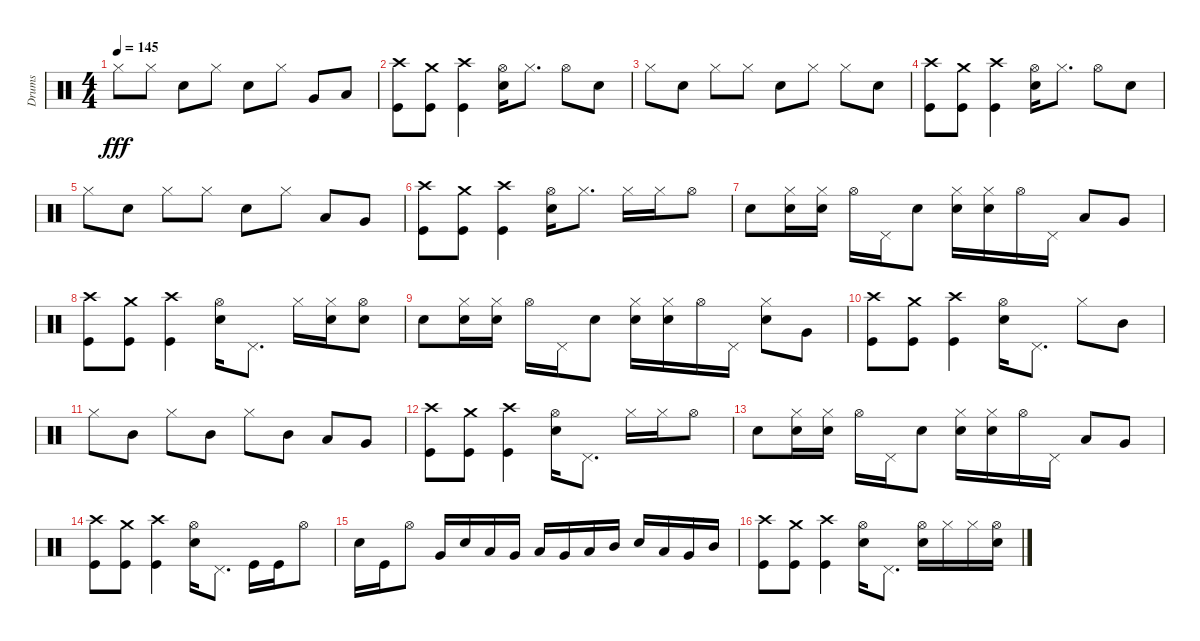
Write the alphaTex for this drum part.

\track ("Drums" "Drums") {instrument percussion}
\staff {score}
\articulation defaults
\ts (4 4)
\tempo 145
\clef neutral
\ks c "Hi-Hat (closed)".8{dy fff} "Hi-Hat (closed)".8 "Snare (hit) 2".8 "Hi-Hat (closed)".8 "Snare (hit) 2".8 "Hi-Hat (closed)".8 "Very Low Tom (hit)".8 "Low Floor Tom (hit)".8
|
("Crash high (hit)" "Kick (hit)").8 ("Crash medium (hit)" "Kick (hit)").8 ("Crash high (hit)" "Kick (hit)").4 ("Hi-Hat (open)" "Snare (hit) 2").16 "Hi-Hat (closed)".8{d} "Hi-Hat (open)".8 "Snare (hit) 2".8 |
"Hi-Hat (closed)".8 "Snare (hit) 2".8 "Hi-Hat (closed)".8 "Hi-Hat (closed)".8 "Snare (hit) 2".8 "Hi-Hat (closed)".8 "Hi-Hat (closed)".8 "Snare (hit) 2".8 |
("Crash high (hit)" "Kick (hit)").8 ("Crash medium (hit)" "Kick (hit)").8 ("Crash high (hit)" "Kick (hit)").4 ("Hi-Hat (open)" "Snare (hit) 2").16 "Hi-Hat (closed)".8{d} "Hi-Hat (open)".8 "Snare (hit) 2".8 |
"Hi-Hat (closed)".8 "Snare (hit) 2".8 "Hi-Hat (closed)".8 "Hi-Hat (closed)".8 "Snare (hit) 2".8 "Hi-Hat (closed)".8 "Low Tom (hit)".8 "Very Low Tom (hit)".8 |
("Crash high (hit)" "Kick (hit)").8 ("Crash medium (hit)" "Kick (hit)").8 ("Crash high (hit)" "Kick (hit)").4 ("Hi-Hat (open)" "Snare (hit) 2").16 "Hi-Hat (closed)".8{d} "Hi-Hat (closed)".16 "Hi-Hat (closed)".16 "Hi-Hat (open)".8 |
"Snare (hit) 2".8 ("Hi-Hat (closed)" "Snare (hit) 2").16 ("Hi-Hat (closed)" "Snare (hit) 2").16 "Hi-Hat (open)".16 "Pedal Hi-Hat (hit)".16 "Snare (hit) 2".8 ("Hi-Hat (closed)" "Snare (hit) 2").16 ("Hi-Hat (closed)" "Snare (hit) 2").16 "Hi-Hat (open)".16 "Pedal Hi-Hat (hit)".16 "Low Tom (hit)".8 "Very Low Tom (hit)".8 |
("Crash high (hit)" "Kick (hit)").8 ("Crash medium (hit)" "Kick (hit)").8 ("Crash high (hit)" "Kick (hit)").4 ("Hi-Hat (open)" "Snare (hit) 2").16 "Pedal Hi-Hat (hit)".8{d} "Hi-Hat (closed)".16 ("Hi-Hat (closed)" "Snare (hit) 2").16 ("Hi-Hat (open)" "Snare (hit) 2").8 |
"Snare (hit) 2".8 ("Hi-Hat (closed)" "Snare (hit) 2").16 ("Hi-Hat (closed)" "Snare (hit) 2").16 "Hi-Hat (open)".16 "Pedal Hi-Hat (hit)".16 "Snare (hit) 2".8 ("Hi-Hat (closed)" "Snare (hit) 2").16 ("Hi-Hat (closed)" "Snare (hit) 2").16 "Hi-Hat (open)".16 "Pedal Hi-Hat (hit)".16 ("Hi-Hat (closed)" "Snare (hit) 2").8 "Very Low Tom (hit)".8 |
("Crash high (hit)" "Kick (hit)").8 ("Crash medium (hit)" "Kick (hit)").8 ("Crash high (hit)" "Kick (hit)").4 ("Hi-Hat (open)" "Snare (hit) 2").16 "Pedal Hi-Hat (hit)".8{d} "Hi-Hat (closed)".8 "Mid Tom (hit)".8 |
"Hi-Hat (closed)".8 "Mid Tom (hit)".8 "Hi-Hat (closed)".8 "Mid Tom (hit)".8 "Hi-Hat (closed)".8 "Mid Tom (hit)".8 "Low Tom (hit)".8 "Very Low Tom (hit)".8 |
("Crash high (hit)" "Kick (hit)").8 ("Crash medium (hit)" "Kick (hit)").8 ("Crash high (hit)" "Kick (hit)").4 ("Hi-Hat (open)" "Snare (hit) 2").16 "Pedal Hi-Hat (hit)".8{d} "Hi-Hat (closed)".16 "Hi-Hat (closed)".16 "Hi-Hat (open)".8 |
"Snare (hit) 2".8 ("Hi-Hat (closed)" "Snare (hit) 2").16 ("Hi-Hat (closed)" "Snare (hit) 2").16 "Hi-Hat (open)".16 "Pedal Hi-Hat (hit)".16 "Snare (hit) 2".8 ("Hi-Hat (closed)" "Snare (hit) 2").16 ("Hi-Hat (closed)" "Snare (hit) 2").16 "Hi-Hat (open)".16 "Pedal Hi-Hat (hit)".16 "Low Tom (hit)".8 "Very Low Tom (hit)".8 |
("Crash high (hit)" "Kick (hit)").8 ("Crash medium (hit)" "Kick (hit)").8 ("Crash high (hit)" "Kick (hit)").4 ("Hi-Hat (open)" "Snare (hit) 2").16 "Pedal Hi-Hat (hit)".8{d} "Kick (hit)".16 "Kick (hit)".16 "Hi-Hat (open)".8 |
"Snare (hit) 2".16 "Kick (hit)".16 "Hi-Hat (open)".8 "Very Low Tom (hit)".16 "Snare (hit) 2".16 "Low Tom (hit)".16 "Very Low Tom (hit)".16 "Low Tom (hit)".16 "Very Low Tom (hit)".16 "Low Floor Tom (hit)".16 "Mid Tom (hit)".16 "Snare (hit) 2".16 "Low Tom (hit)".16 "Very Low Tom (hit)".16 "Mid Tom (hit)".16 |
("Crash high (hit)" "Kick (hit)").8 ("Crash medium (hit)" "Kick (hit)").8 ("Crash high (hit)" "Kick (hit)").4 ("Hi-Hat (open)" "Snare (hit) 2").16 "Pedal Hi-Hat (hit)".8{d} ("Hi-Hat (open)" "Snare (hit) 2").16 "Hi-Hat (closed)".16 "Hi-Hat (closed)".16 ("Hi-Hat (open)" "Snare (hit) 2").16
